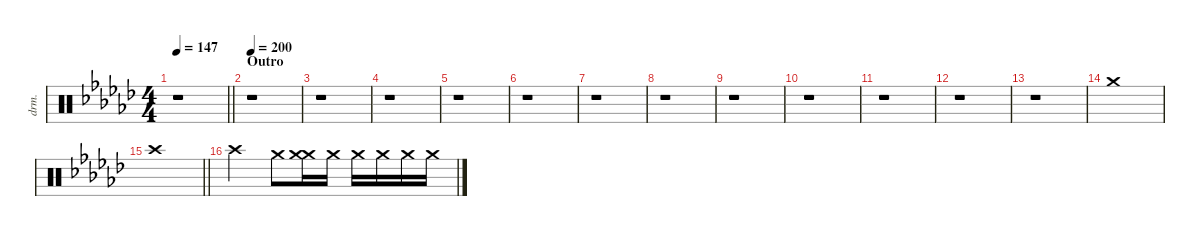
\defaultSystemsLayout 8
\hideDynamics
\bracketExtendMode nobrackets
\otherSystemsTrackNameOrientation horizontal
\track ("Drums" "drm.") {defaultSystemsLayout 4 instrument percussion}
\staff {score}
\articulation defaults
\ts (4 4)
\tempo 147
\clef neutral
\barLineRight lightlight
\ks ebminor
r.1{dy f beam Down} |
\section ("" "Outro")
\tempo 200
r.1{beam Down} |
r.1{beam Down} |
r.1{beam Down} |
r.1{beam Down} |
r.1{beam Down} |
r.1{beam Down} |
r.1{beam Down} |
r.1{beam Down} |
r.1{beam Down} |
r.1{beam Down} |
r.1{beam Down} |
r.1{beam Down} |
"Crash medium (hit)"{acc forcenatural}.1{beam Down} |
\barLineRight lightlight "Crash high (hit)"{acc forcenatural}.1{beam Down}
|
"Crash high (hit)"{acc forcenatural}.2{beam Down} "Crash medium (hit)"{acc forcenatural}.8{dy mp beam Down} ("Crash medium (hit)"{acc forcenatural} "Crash medium (hit)"{acc forcenatural}).16{dy pp beam Down} "Crash medium (hit)"{acc forcenatural}.16{beam Down} "Crash medium (hit)"{acc forcenatural}.16{beam Down} "Crash medium (hit)"{acc forcenatural}.16{dy p beam Down} "Crash medium (hit)"{acc forcenatural}.16{beam Down} "Crash medium (hit)"{acc forcenatural}.16{beam Down}
